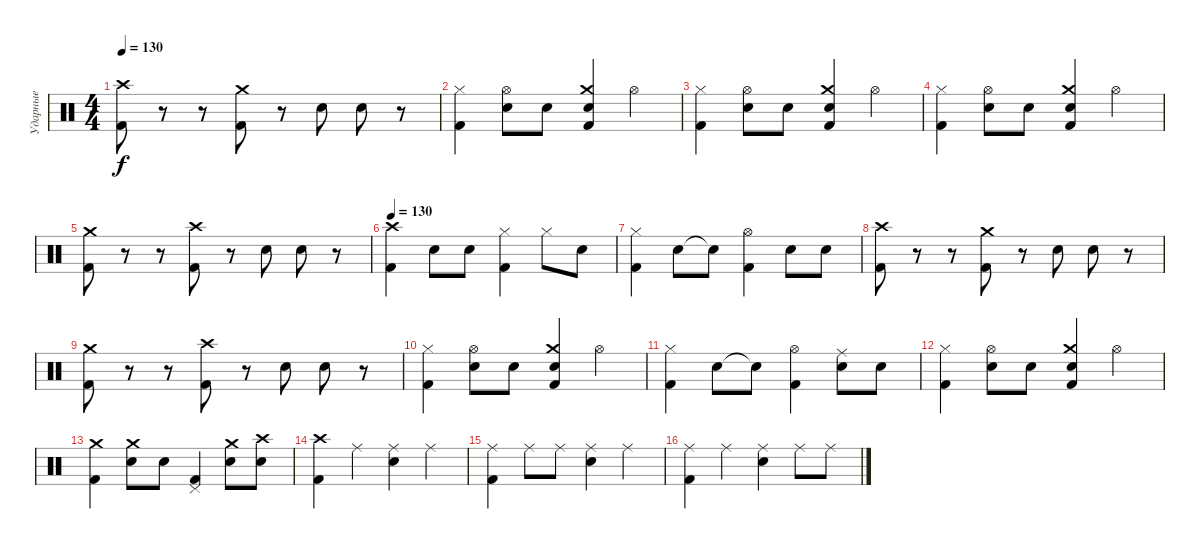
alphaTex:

\track ("Ударные" "Ударные") {instrument percussion}
\staff {score}
\articulation defaults
\ts (4 4)
\tempo 130
\clef neutral
\ks c
("Crash high (hit)" "Kick (hit) 2").8{dy f} r.8 r.8 ("Crash medium (hit)" "Kick (hit) 2").8 r.8 "Snare (hit) 2".8 "Snare (hit) 2".8 r.8 |
("Hi-Hat (closed)" "Kick (hit) 2").4 ("Hi-Hat (open)" "Snare (hit) 2").8 "Snare (hit) 2".8 ("Crash medium (hit)" "Snare (hit) 2" "Kick (hit) 2").4 "Hi-Hat (open)".4 |
("Hi-Hat (closed)" "Kick (hit) 2").4 ("Hi-Hat (open)" "Snare (hit) 2").8 "Snare (hit) 2".8 ("Crash medium (hit)" "Snare (hit) 2" "Kick (hit) 2").4 "Hi-Hat (open)".4 |
("Hi-Hat (closed)" "Kick (hit) 2").4 ("Hi-Hat (open)" "Snare (hit) 2").8 "Snare (hit) 2".8 ("Crash medium (hit)" "Snare (hit) 2" "Kick (hit) 2").4 "Hi-Hat (open)".4 |
("Crash medium (hit)" "Kick (hit) 2").8 r.8 r.8 ("Crash high (hit)" "Kick (hit) 2").8 r.8 "Snare (hit) 2".8 "Snare (hit) 2".8 r.8 |
\tempo 130
("Crash high (hit)" "Kick (hit) 2").4 "Snare (hit) 2".8 "Snare (hit) 2".8 ("Hi-Hat (closed)" "Kick (hit) 2").4 "Hi-Hat (closed)".8 "Snare (hit) 2".8 |
("Hi-Hat (closed)" "Kick (hit) 2").4 "Snare (hit) 2".8 "Snare (hit) 2"{t}.8 ("Hi-Hat (open)" "Kick (hit) 2").4 "Snare (hit) 2".8 "Snare (hit) 2".8 |
("Crash high (hit)" "Kick (hit) 2").8 r.8 r.8 ("Crash medium (hit)" "Kick (hit) 2").8 r.8 "Snare (hit) 2".8 "Snare (hit) 2".8 r.8 |
("Crash medium (hit)" "Kick (hit) 2").8 r.8 r.8 ("Crash high (hit)" "Kick (hit) 2").8 r.8 "Snare (hit) 2".8 "Snare (hit) 2".8 r.8 |
("Hi-Hat (closed)" "Kick (hit) 2").4 ("Hi-Hat (open)" "Snare (hit) 2").8 "Snare (hit) 2".8 ("Crash medium (hit)" "Snare (hit) 2" "Kick (hit) 2").4 "Hi-Hat (open)".4 |
("Hi-Hat (closed)" "Kick (hit) 2").4 "Snare (hit) 2".8 "Snare (hit) 2"{t}.8 ("Hi-Hat (open)" "Kick (hit) 2").4 ("Ride (middle)" "Snare (hit) 2").8 "Snare (hit) 2".8 |
("Hi-Hat (closed)" "Kick (hit) 2").4 ("Hi-Hat (open)" "Snare (hit) 2").8 "Snare (hit) 2".8 ("Crash medium (hit)" "Snare (hit) 2" "Kick (hit) 2").4 "Hi-Hat (open)".4 |
("Crash medium (hit)" "Kick (hit) 2").4 ("Crash medium (hit)" "Snare (hit) 2").8 "Snare (hit) 2".8 ("Pedal Hi-Hat (hit)" "Kick (hit) 2").4 ("Crash medium (hit)" "Snare (hit) 2").8 ("Crash high (hit)" "Snare (hit) 2").8 |
("Crash high (hit)" "Kick (hit) 2").4 "Ride (middle)".4 ("Ride (middle)" "Snare (hit) 2").4 "Ride (middle)".4 |
("Ride (middle)" "Kick (hit) 2").4 "Ride (middle)".8 "Ride (middle)".8 ("Ride (middle)" "Snare (hit) 2").4 "Ride (middle)".4 |
("Ride (middle)" "Kick (hit) 2").4 "Ride (middle)".4 ("Ride (middle)" "Snare (hit) 2").4 "Ride (middle)".8 "Ride (middle)".8
